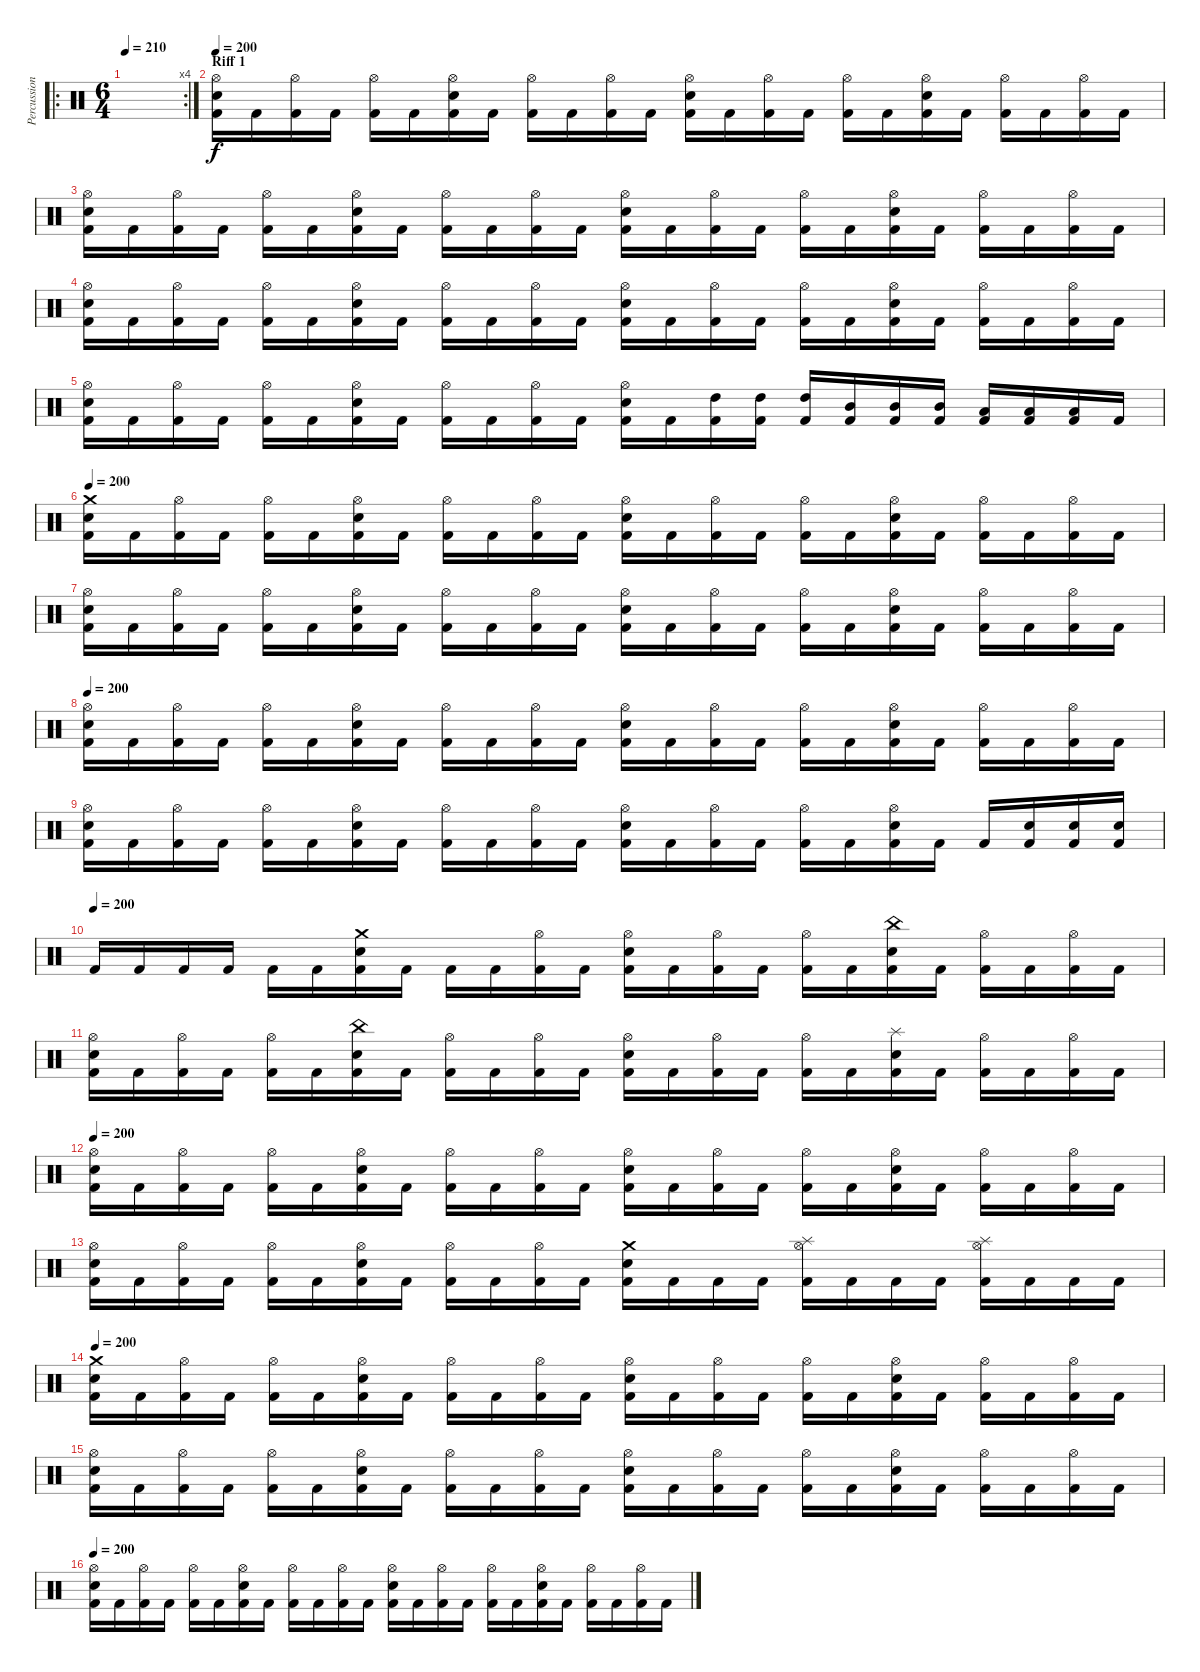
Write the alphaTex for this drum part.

\track ("Percussion" "Percussion") {instrument percussion}
\staff {score}
\articulation defaults
\ro
\rc 4
\ts (6 4)
\tempo 210
\tempo 180
\tempo 210
\clef neutral
\ks c
|
\section ("" "Riff 1")
\tempo 200
("Hi-Hat (open)" "Electric Snare (hit)" "Kick (hit) 2").16 "Kick (hit) 2".16 ("Hi-Hat (open)" "Kick (hit) 2").16 "Kick (hit) 2".16 ("Hi-Hat (open)" "Kick (hit) 2").16 "Kick (hit) 2".16 ("Hi-Hat (open)" "Electric Snare (hit)" "Kick (hit) 2").16 "Kick (hit) 2".16 ("Hi-Hat (open)" "Kick (hit) 2").16 "Kick (hit) 2".16 ("Hi-Hat (open)" "Kick (hit) 2").16 "Kick (hit) 2".16 ("Hi-Hat (open)" "Electric Snare (hit)" "Kick (hit) 2").16 "Kick (hit) 2".16 ("Hi-Hat (open)" "Kick (hit) 2").16 "Kick (hit) 2".16 ("Hi-Hat (open)" "Kick (hit) 2").16 "Kick (hit) 2".16 ("Hi-Hat (open)" "Electric Snare (hit)" "Kick (hit) 2").16 "Kick (hit) 2".16 ("Hi-Hat (open)" "Kick (hit) 2").16 "Kick (hit) 2".16 ("Hi-Hat (open)" "Kick (hit) 2").16 "Kick (hit) 2".16 |
("Hi-Hat (open)" "Electric Snare (hit)" "Kick (hit) 2").16 "Kick (hit) 2".16 ("Hi-Hat (open)" "Kick (hit) 2").16 "Kick (hit) 2".16 ("Hi-Hat (open)" "Kick (hit) 2").16 "Kick (hit) 2".16 ("Hi-Hat (open)" "Electric Snare (hit)" "Kick (hit) 2").16 "Kick (hit) 2".16 ("Hi-Hat (open)" "Kick (hit) 2").16 "Kick (hit) 2".16 ("Hi-Hat (open)" "Kick (hit) 2").16 "Kick (hit) 2".16 ("Hi-Hat (open)" "Electric Snare (hit)" "Kick (hit) 2").16 "Kick (hit) 2".16 ("Hi-Hat (open)" "Kick (hit) 2").16 "Kick (hit) 2".16 ("Hi-Hat (open)" "Kick (hit) 2").16 "Kick (hit) 2".16 ("Hi-Hat (open)" "Electric Snare (hit)" "Kick (hit) 2").16 "Kick (hit) 2".16 ("Hi-Hat (open)" "Kick (hit) 2").16 "Kick (hit) 2".16 ("Hi-Hat (open)" "Kick (hit) 2").16 "Kick (hit) 2".16 |
("Hi-Hat (open)" "Electric Snare (hit)" "Kick (hit) 2").16 "Kick (hit) 2".16 ("Hi-Hat (open)" "Kick (hit) 2").16 "Kick (hit) 2".16 ("Hi-Hat (open)" "Kick (hit) 2").16 "Kick (hit) 2".16 ("Hi-Hat (open)" "Electric Snare (hit)" "Kick (hit) 2").16 "Kick (hit) 2".16 ("Hi-Hat (open)" "Kick (hit) 2").16 "Kick (hit) 2".16 ("Hi-Hat (open)" "Kick (hit) 2").16 "Kick (hit) 2".16 ("Hi-Hat (open)" "Electric Snare (hit)" "Kick (hit) 2").16 "Kick (hit) 2".16 ("Hi-Hat (open)" "Kick (hit) 2").16 "Kick (hit) 2".16 ("Hi-Hat (open)" "Kick (hit) 2").16 "Kick (hit) 2".16 ("Hi-Hat (open)" "Electric Snare (hit)" "Kick (hit) 2").16 "Kick (hit) 2".16 ("Hi-Hat (open)" "Kick (hit) 2").16 "Kick (hit) 2".16 ("Hi-Hat (open)" "Kick (hit) 2").16 "Kick (hit) 2".16 |
("Hi-Hat (open)" "Electric Snare (hit)" "Kick (hit) 2").16 "Kick (hit) 2".16 ("Hi-Hat (open)" "Kick (hit) 2").16 "Kick (hit) 2".16 ("Hi-Hat (open)" "Kick (hit) 2").16 "Kick (hit) 2".16 ("Hi-Hat (open)" "Electric Snare (hit)" "Kick (hit) 2").16 "Kick (hit) 2".16 ("Hi-Hat (open)" "Kick (hit) 2").16 "Kick (hit) 2".16 ("Hi-Hat (open)" "Kick (hit) 2").16 "Kick (hit) 2".16 ("Hi-Hat (open)" "Electric Snare (hit)" "Kick (hit) 2").16 "Kick (hit) 2".16 ("High Tom (hit)" "Kick (hit) 2").16 ("High Tom (hit)" "Kick (hit) 2").16 ("High Tom (hit)" "Kick (hit) 2").16 ("Mid Tom (hit)" "Kick (hit) 2").16 ("Mid Tom (hit)" "Kick (hit) 2").16 ("Mid Tom (hit)" "Kick (hit) 2").16 ("Low Tom (hit)" "Kick (hit) 2").16 ("Low Tom (hit)" "Kick (hit) 2").16 ("Low Tom (hit)" "Kick (hit) 2").16 "Kick (hit) 2".16 |
\tempo 200
("Crash medium (hit)" "Electric Snare (hit)" "Kick (hit) 2").16 "Kick (hit) 2".16 ("Hi-Hat (open)" "Kick (hit) 2").16 "Kick (hit) 2".16 ("Hi-Hat (open)" "Kick (hit) 2").16 "Kick (hit) 2".16 ("Hi-Hat (open)" "Electric Snare (hit)" "Kick (hit) 2").16 "Kick (hit) 2".16 ("Hi-Hat (open)" "Kick (hit) 2").16 "Kick (hit) 2".16 ("Hi-Hat (open)" "Kick (hit) 2").16 "Kick (hit) 2".16 ("Hi-Hat (open)" "Electric Snare (hit)" "Kick (hit) 2").16 "Kick (hit) 2".16 ("Hi-Hat (open)" "Kick (hit) 2").16 "Kick (hit) 2".16 ("Hi-Hat (open)" "Kick (hit) 2").16 "Kick (hit) 2".16 ("Hi-Hat (open)" "Electric Snare (hit)" "Kick (hit) 2").16 "Kick (hit) 2".16 ("Hi-Hat (open)" "Kick (hit) 2").16 "Kick (hit) 2".16 ("Hi-Hat (open)" "Kick (hit) 2").16 "Kick (hit) 2".16 |
("Hi-Hat (open)" "Electric Snare (hit)" "Kick (hit) 2").16 "Kick (hit) 2".16 ("Hi-Hat (open)" "Kick (hit) 2").16 "Kick (hit) 2".16 ("Hi-Hat (open)" "Kick (hit) 2").16 "Kick (hit) 2".16 ("Hi-Hat (open)" "Electric Snare (hit)" "Kick (hit) 2").16 "Kick (hit) 2".16 ("Hi-Hat (open)" "Kick (hit) 2").16 "Kick (hit) 2".16 ("Hi-Hat (open)" "Kick (hit) 2").16 "Kick (hit) 2".16 ("Hi-Hat (open)" "Electric Snare (hit)" "Kick (hit) 2").16 "Kick (hit) 2".16 ("Hi-Hat (open)" "Kick (hit) 2").16 "Kick (hit) 2".16 ("Hi-Hat (open)" "Kick (hit) 2").16 "Kick (hit) 2".16 ("Hi-Hat (open)" "Electric Snare (hit)" "Kick (hit) 2").16 "Kick (hit) 2".16 ("Hi-Hat (open)" "Kick (hit) 2").16 "Kick (hit) 2".16 ("Hi-Hat (open)" "Kick (hit) 2").16 "Kick (hit) 2".16 |
\tempo 200
("Hi-Hat (open)" "Electric Snare (hit)" "Kick (hit) 2").16 "Kick (hit) 2".16 ("Hi-Hat (open)" "Kick (hit) 2").16 "Kick (hit) 2".16 ("Hi-Hat (open)" "Kick (hit) 2").16 "Kick (hit) 2".16 ("Hi-Hat (open)" "Electric Snare (hit)" "Kick (hit) 2").16 "Kick (hit) 2".16 ("Hi-Hat (open)" "Kick (hit) 2").16 "Kick (hit) 2".16 ("Hi-Hat (open)" "Kick (hit) 2").16 "Kick (hit) 2".16 ("Hi-Hat (open)" "Electric Snare (hit)" "Kick (hit) 2").16 "Kick (hit) 2".16 ("Hi-Hat (open)" "Kick (hit) 2").16 "Kick (hit) 2".16 ("Hi-Hat (open)" "Kick (hit) 2").16 "Kick (hit) 2".16 ("Hi-Hat (open)" "Electric Snare (hit)" "Kick (hit) 2").16 "Kick (hit) 2".16 ("Hi-Hat (open)" "Kick (hit) 2").16 "Kick (hit) 2".16 ("Hi-Hat (open)" "Kick (hit) 2").16 "Kick (hit) 2".16 |
("Hi-Hat (open)" "Electric Snare (hit)" "Kick (hit) 2").16 "Kick (hit) 2".16 ("Hi-Hat (open)" "Kick (hit) 2").16 "Kick (hit) 2".16 ("Hi-Hat (open)" "Kick (hit) 2").16 "Kick (hit) 2".16 ("Hi-Hat (open)" "Electric Snare (hit)" "Kick (hit) 2").16 "Kick (hit) 2".16 ("Hi-Hat (open)" "Kick (hit) 2").16 "Kick (hit) 2".16 ("Hi-Hat (open)" "Kick (hit) 2").16 "Kick (hit) 2".16 ("Hi-Hat (open)" "Electric Snare (hit)" "Kick (hit) 2").16 "Kick (hit) 2".16 ("Hi-Hat (open)" "Kick (hit) 2").16 "Kick (hit) 2".16 ("Hi-Hat (open)" "Kick (hit) 2").16 "Kick (hit) 2".16 ("Hi-Hat (open)" "Electric Snare (hit)" "Kick (hit) 2").16 "Kick (hit) 2".16 "Kick (hit) 2".16 ("Electric Snare (hit)" "Kick (hit) 2").16 ("Electric Snare (hit)" "Kick (hit) 2").16 ("Electric Snare (hit)" "Kick (hit) 2").16 |
\tempo (200)
"Kick (hit) 2".16 "Kick (hit) 2".16 "Kick (hit) 2".16 "Kick (hit) 2".16 "Kick (hit) 2".16 "Kick (hit) 2".16 ("Crash medium (hit)" "Electric Snare (hit)" "Kick (hit) 2").16 "Kick (hit) 2".16 "Kick (hit) 2".16 "Kick (hit) 2".16 ("Hi-Hat (open)" "Kick (hit) 2").16 "Kick (hit) 2".16 ("Hi-Hat (open)" "Electric Snare (hit)" "Kick (hit) 2").16 "Kick (hit) 2".16 ("Hi-Hat (open)" "Kick (hit) 2").16 "Kick (hit) 2".16 ("Hi-Hat (open)" "Kick (hit) 2").16 "Kick (hit) 2".16 ("China (hit)" "Electric Snare (hit)" "Kick (hit) 2").16 "Kick (hit) 2".16 ("Hi-Hat (open)" "Kick (hit) 2").16 "Kick (hit) 2".16 ("Hi-Hat (open)" "Kick (hit) 2").16 "Kick (hit) 2".16 |
("Hi-Hat (open)" "Electric Snare (hit)" "Kick (hit) 2").16 "Kick (hit) 2".16 ("Hi-Hat (open)" "Kick (hit) 2").16 "Kick (hit) 2".16 ("Hi-Hat (open)" "Kick (hit) 2").16 "Kick (hit) 2".16 ("China (hit)" "Electric Snare (hit)" "Kick (hit) 2").16 "Kick (hit) 2".16 ("Hi-Hat (open)" "Kick (hit) 2").16 "Kick (hit) 2".16 ("Hi-Hat (open)" "Kick (hit) 2").16 "Kick (hit) 2".16 ("Hi-Hat (open)" "Electric Snare (hit)" "Kick (hit) 2").16 "Kick (hit) 2".16 ("Hi-Hat (open)" "Kick (hit) 2").16 "Kick (hit) 2".16 ("Hi-Hat (open)" "Kick (hit) 2").16 "Kick (hit) 2".16 ("Splash (hit)" "Electric Snare (hit)" "Kick (hit) 2").16 "Kick (hit) 2".16 ("Hi-Hat (open)" "Kick (hit) 2").16 "Kick (hit) 2".16 ("Hi-Hat (open)" "Kick (hit) 2").16 "Kick (hit) 2".16 |
\tempo 200
("Hi-Hat (open)" "Electric Snare (hit)" "Kick (hit) 2").16 "Kick (hit) 2".16 ("Hi-Hat (open)" "Kick (hit) 2").16 "Kick (hit) 2".16 ("Hi-Hat (open)" "Kick (hit) 2").16 "Kick (hit) 2".16 ("Hi-Hat (open)" "Electric Snare (hit)" "Kick (hit) 2").16 "Kick (hit) 2".16 ("Hi-Hat (open)" "Kick (hit) 2").16 "Kick (hit) 2".16 ("Hi-Hat (open)" "Kick (hit) 2").16 "Kick (hit) 2".16 ("Hi-Hat (open)" "Electric Snare (hit)" "Kick (hit) 2").16 "Kick (hit) 2".16 ("Hi-Hat (open)" "Kick (hit) 2").16 "Kick (hit) 2".16 ("Hi-Hat (open)" "Kick (hit) 2").16 "Kick (hit) 2".16 ("Hi-Hat (open)" "Electric Snare (hit)" "Kick (hit) 2").16 "Kick (hit) 2".16 ("Hi-Hat (open)" "Kick (hit) 2").16 "Kick (hit) 2".16 ("Hi-Hat (open)" "Kick (hit) 2").16 "Kick (hit) 2".16 |
("Hi-Hat (open)" "Electric Snare (hit)" "Kick (hit) 2").16 "Kick (hit) 2".16 ("Hi-Hat (open)" "Kick (hit) 2").16 "Kick (hit) 2".16 ("Hi-Hat (open)" "Kick (hit) 2").16 "Kick (hit) 2".16 ("Hi-Hat (open)" "Electric Snare (hit)" "Kick (hit) 2").16 "Kick (hit) 2".16 ("Hi-Hat (open)" "Kick (hit) 2").16 "Kick (hit) 2".16 ("Hi-Hat (open)" "Kick (hit) 2").16 "Kick (hit) 2".16 ("Crash medium (hit)" "Electric Snare (hit)" "Kick (hit) 2").16 "Kick (hit) 2".16 "Kick (hit) 2".16 "Kick (hit) 2".16 ("Hi-Hat (open)" "Splash (hit)" "Kick (hit) 2").16 "Kick (hit) 2".16 "Kick (hit) 2".16 "Kick (hit) 2".16 ("Hi-Hat (open)" "Splash (hit)" "Kick (hit) 2").16 "Kick (hit) 2".16 "Kick (hit) 2".16 "Kick (hit) 2".16 |
\tempo 200
("Crash medium (hit)" "Electric Snare (hit)" "Kick (hit) 2").16 "Kick (hit) 2".16 ("Hi-Hat (open)" "Kick (hit) 2").16 "Kick (hit) 2".16 ("Hi-Hat (open)" "Kick (hit) 2").16 "Kick (hit) 2".16 ("Hi-Hat (open)" "Electric Snare (hit)" "Kick (hit) 2").16 "Kick (hit) 2".16 ("Hi-Hat (open)" "Kick (hit) 2").16 "Kick (hit) 2".16 ("Hi-Hat (open)" "Kick (hit) 2").16 "Kick (hit) 2".16 ("Hi-Hat (open)" "Electric Snare (hit)" "Kick (hit) 2").16 "Kick (hit) 2".16 ("Hi-Hat (open)" "Kick (hit) 2").16 "Kick (hit) 2".16 ("Hi-Hat (open)" "Kick (hit) 2").16 "Kick (hit) 2".16 ("Hi-Hat (open)" "Electric Snare (hit)" "Kick (hit) 2").16 "Kick (hit) 2".16 ("Hi-Hat (open)" "Kick (hit) 2").16 "Kick (hit) 2".16 ("Hi-Hat (open)" "Kick (hit) 2").16 "Kick (hit) 2".16 |
("Hi-Hat (open)" "Electric Snare (hit)" "Kick (hit) 2").16 "Kick (hit) 2".16 ("Hi-Hat (open)" "Kick (hit) 2").16 "Kick (hit) 2".16 ("Hi-Hat (open)" "Kick (hit) 2").16 "Kick (hit) 2".16 ("Hi-Hat (open)" "Electric Snare (hit)" "Kick (hit) 2").16 "Kick (hit) 2".16 ("Hi-Hat (open)" "Kick (hit) 2").16 "Kick (hit) 2".16 ("Hi-Hat (open)" "Kick (hit) 2").16 "Kick (hit) 2".16 ("Hi-Hat (open)" "Electric Snare (hit)" "Kick (hit) 2").16 "Kick (hit) 2".16 ("Hi-Hat (open)" "Kick (hit) 2").16 "Kick (hit) 2".16 ("Hi-Hat (open)" "Kick (hit) 2").16 "Kick (hit) 2".16 ("Hi-Hat (open)" "Electric Snare (hit)" "Kick (hit) 2").16 "Kick (hit) 2".16 ("Hi-Hat (open)" "Kick (hit) 2").16 "Kick (hit) 2".16 ("Hi-Hat (open)" "Kick (hit) 2").16 "Kick (hit) 2".16 |
\tempo 200
("Hi-Hat (open)" "Electric Snare (hit)" "Kick (hit) 2").16 "Kick (hit) 2".16 ("Hi-Hat (open)" "Kick (hit) 2").16 "Kick (hit) 2".16 ("Hi-Hat (open)" "Kick (hit) 2").16 "Kick (hit) 2".16 ("Hi-Hat (open)" "Electric Snare (hit)" "Kick (hit) 2").16 "Kick (hit) 2".16 ("Hi-Hat (open)" "Kick (hit) 2").16 "Kick (hit) 2".16 ("Hi-Hat (open)" "Kick (hit) 2").16 "Kick (hit) 2".16 ("Hi-Hat (open)" "Electric Snare (hit)" "Kick (hit) 2").16 "Kick (hit) 2".16 ("Hi-Hat (open)" "Kick (hit) 2").16 "Kick (hit) 2".16 ("Hi-Hat (open)" "Kick (hit) 2").16 "Kick (hit) 2".16 ("Hi-Hat (open)" "Electric Snare (hit)" "Kick (hit) 2").16 "Kick (hit) 2".16 ("Hi-Hat (open)" "Kick (hit) 2").16 "Kick (hit) 2".16 ("Hi-Hat (open)" "Kick (hit) 2").16 "Kick (hit) 2".16
